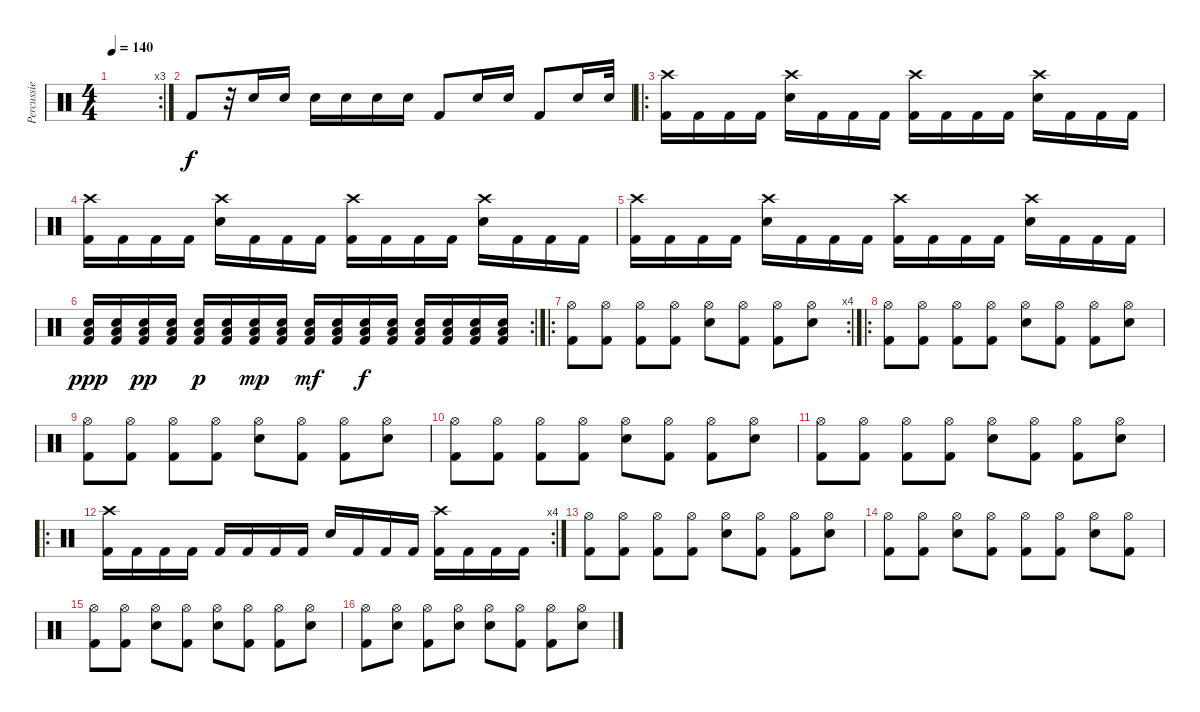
\track ("Percussie" "Percussie") {instrument percussion}
\staff {score}
\articulation defaults
\rc 3
\ts (4 4)
\tempo 140
\clef neutral
\ks c
|
"Kick (hit) 2".8 r.32 "Snare (hit) 2".16 "Snare (hit) 2".16 "Snare (hit) 2".16 "Snare (hit) 2".16 "Snare (hit) 2".16 "Snare (hit) 2".16 "Kick (hit) 2".8 "Snare (hit) 2".16 "Snare (hit) 2".16 "Kick (hit) 2".8 "Snare (hit) 2".16 "Snare (hit) 2".32 |
\ro
("Crash high (hit)" "Kick (hit) 2").16 "Kick (hit) 2".16 "Kick (hit) 2".16 "Kick (hit) 2".16 ("Crash high (hit)" "Snare (hit) 2").16 "Kick (hit) 2".16 "Kick (hit) 2".16 "Kick (hit) 2".16 ("Crash high (hit)" "Kick (hit) 2").16 "Kick (hit) 2".16 "Kick (hit) 2".16 "Kick (hit) 2".16 ("Crash high (hit)" "Snare (hit) 2").16 "Kick (hit) 2".16 "Kick (hit) 2".16 "Kick (hit) 2".16 |
("Crash high (hit)" "Kick (hit) 2").16 "Kick (hit) 2".16 "Kick (hit) 2".16 "Kick (hit) 2".16 ("Crash high (hit)" "Snare (hit) 2").16 "Kick (hit) 2".16 "Kick (hit) 2".16 "Kick (hit) 2".16 ("Crash high (hit)" "Kick (hit) 2").16 "Kick (hit) 2".16 "Kick (hit) 2".16 "Kick (hit) 2".16 ("Crash high (hit)" "Snare (hit) 2").16 "Kick (hit) 2".16 "Kick (hit) 2".16 "Kick (hit) 2".16 |
("Crash high (hit)" "Kick (hit) 2").16 "Kick (hit) 2".16 "Kick (hit) 2".16 "Kick (hit) 2".16 ("Crash high (hit)" "Snare (hit) 2").16 "Kick (hit) 2".16 "Kick (hit) 2".16 "Kick (hit) 2".16 ("Crash high (hit)" "Kick (hit) 2").16 "Kick (hit) 2".16 "Kick (hit) 2".16 "Kick (hit) 2".16 ("Crash high (hit)" "Snare (hit) 2").16 "Kick (hit) 2".16 "Kick (hit) 2".16 "Kick (hit) 2".16 |
\rc 2
("Kick (hit) 2" "Snare (hit) 2" "Low Floor Tom (hit)").16{dy ppp} ("Kick (hit) 2" "Snare (hit) 2" "Low Floor Tom (hit)").16 ("Kick (hit) 2" "Snare (hit) 2" "Low Floor Tom (hit)").16{dy pp} ("Kick (hit) 2" "Snare (hit) 2" "Low Floor Tom (hit)").16 ("Kick (hit) 2" "Snare (hit) 2" "Low Floor Tom (hit)").16{dy p} ("Kick (hit) 2" "Snare (hit) 2" "Low Floor Tom (hit)").16 ("Kick (hit) 2" "Snare (hit) 2" "Low Floor Tom (hit)").16{dy mp} ("Kick (hit) 2" "Snare (hit) 2" "Low Floor Tom (hit)").16 ("Kick (hit) 2" "Snare (hit) 2" "Low Floor Tom (hit)").16{dy mf} ("Kick (hit) 2" "Snare (hit) 2" "Low Floor Tom (hit)").16 ("Kick (hit) 2" "Snare (hit) 2" "Low Floor Tom (hit)").16{dy f} ("Kick (hit) 2" "Snare (hit) 2" "Low Floor Tom (hit)").16 ("Kick (hit) 2" "Snare (hit) 2" "Low Floor Tom (hit)").16 ("Kick (hit) 2" "Snare (hit) 2" "Low Floor Tom (hit)").16 ("Kick (hit) 2" "Snare (hit) 2" "Low Floor Tom (hit)").16 ("Kick (hit) 2" "Snare (hit) 2" "Low Floor Tom (hit)").16 |
\ro
\rc 4
("Hi-Hat (open)" "Kick (hit) 2").8 ("Hi-Hat (open)" "Kick (hit) 2").8 ("Hi-Hat (open)" "Kick (hit) 2").8 ("Hi-Hat (open)" "Kick (hit) 2").8 ("Hi-Hat (open)" "Snare (hit) 2").8 ("Hi-Hat (open)" "Kick (hit) 2").8 ("Hi-Hat (open)" "Kick (hit) 2").8 ("Hi-Hat (open)" "Snare (hit) 2").8 |
\ro
("Hi-Hat (open)" "Kick (hit) 2").8 ("Hi-Hat (open)" "Kick (hit) 2").8 ("Hi-Hat (open)" "Kick (hit) 2").8 ("Hi-Hat (open)" "Kick (hit) 2").8 ("Hi-Hat (open)" "Snare (hit) 2").8 ("Hi-Hat (open)" "Kick (hit) 2").8 ("Hi-Hat (open)" "Kick (hit) 2").8 ("Hi-Hat (open)" "Snare (hit) 2").8 |
("Hi-Hat (open)" "Kick (hit) 2").8 ("Hi-Hat (open)" "Kick (hit) 2").8 ("Hi-Hat (open)" "Kick (hit) 2").8 ("Hi-Hat (open)" "Kick (hit) 2").8 ("Hi-Hat (open)" "Snare (hit) 2").8 ("Hi-Hat (open)" "Kick (hit) 2").8 ("Hi-Hat (open)" "Kick (hit) 2").8 ("Hi-Hat (open)" "Snare (hit) 2").8 |
("Hi-Hat (open)" "Kick (hit) 2").8 ("Hi-Hat (open)" "Kick (hit) 2").8 ("Hi-Hat (open)" "Kick (hit) 2").8 ("Hi-Hat (open)" "Kick (hit) 2").8 ("Hi-Hat (open)" "Snare (hit) 2").8 ("Hi-Hat (open)" "Kick (hit) 2").8 ("Hi-Hat (open)" "Kick (hit) 2").8 ("Hi-Hat (open)" "Snare (hit) 2").8 |
("Hi-Hat (open)" "Kick (hit) 2").8 ("Hi-Hat (open)" "Kick (hit) 2").8 ("Hi-Hat (open)" "Kick (hit) 2").8 ("Hi-Hat (open)" "Kick (hit) 2").8 ("Hi-Hat (open)" "Snare (hit) 2").8 ("Hi-Hat (open)" "Kick (hit) 2").8 ("Hi-Hat (open)" "Kick (hit) 2").8 ("Hi-Hat (open)" "Snare (hit) 2").8 |
\ro
\rc 4
("Crash high (hit)" "Kick (hit) 2").16 "Kick (hit) 2".16 "Kick (hit) 2".16 "Kick (hit) 2".16 "Kick (hit) 2".16 "Kick (hit) 2".16 "Kick (hit) 2".16 "Kick (hit) 2".16 "Snare (hit) 2".16 "Kick (hit) 2".16 "Kick (hit) 2".16 "Kick (hit) 2".16 ("Crash high (hit)" "Kick (hit) 2").16 "Kick (hit) 2".16 "Kick (hit) 2".16 "Kick (hit) 2".16 |
("Hi-Hat (open)" "Kick (hit) 2").8 ("Hi-Hat (open)" "Kick (hit) 2").8 ("Hi-Hat (open)" "Kick (hit) 2").8 ("Hi-Hat (open)" "Kick (hit) 2").8 ("Hi-Hat (open)" "Snare (hit) 2").8 ("Hi-Hat (open)" "Kick (hit) 2").8 ("Hi-Hat (open)" "Kick (hit) 2").8 ("Hi-Hat (open)" "Snare (hit) 2").8 |
("Hi-Hat (open)" "Kick (hit) 2").8 ("Hi-Hat (open)" "Kick (hit) 2").8 ("Hi-Hat (open)" "Snare (hit) 2").8 ("Hi-Hat (open)" "Kick (hit) 2").8 ("Hi-Hat (open)" "Kick (hit) 2").8 ("Hi-Hat (open)" "Kick (hit) 2").8 ("Hi-Hat (open)" "Snare (hit) 2").8 ("Hi-Hat (open)" "Kick (hit) 2").8 |
("Hi-Hat (open)" "Kick (hit) 2").8 ("Hi-Hat (open)" "Kick (hit) 2").8 ("Hi-Hat (open)" "Snare (hit) 2").8 ("Hi-Hat (open)" "Kick (hit) 2").8 ("Hi-Hat (open)" "Snare (hit) 2").8 ("Hi-Hat (open)" "Kick (hit) 2").8 ("Hi-Hat (open)" "Kick (hit) 2").8 ("Hi-Hat (open)" "Snare (hit) 2").8 |
("Hi-Hat (open)" "Kick (hit) 2").8 ("Hi-Hat (open)" "Snare (hit) 2").8 ("Hi-Hat (open)" "Kick (hit) 2").8 ("Hi-Hat (open)" "Snare (hit) 2").8 ("Hi-Hat (open)" "Snare (hit) 2").8 ("Hi-Hat (open)" "Kick (hit) 2").8 ("Hi-Hat (open)" "Kick (hit) 2").8 ("Hi-Hat (open)" "Snare (hit) 2").8
